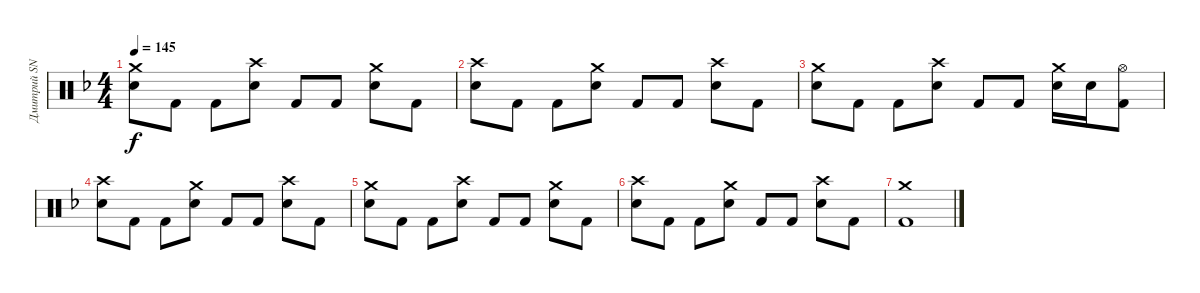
\track ("Дмитрий SNAKE Хакимов" "Дмитрий SN") {instrument percussion}
\staff {score}
\articulation defaults
\ts (4 4)
\tempo 145
\clef neutral
\ks f
("Crash medium (hit)" "Snare (hit) 2").8{dy f} "Kick (hit) 2".8 "Kick (hit) 2".8 ("Crash high (hit)" "Snare (hit) 2").8 "Kick (hit) 2".8 "Kick (hit) 2".8 ("Crash medium (hit)" "Snare (hit) 2").8 "Kick (hit) 2".8 |
("Crash high (hit)" "Snare (hit) 2").8 "Kick (hit) 2".8 "Kick (hit) 2".8 ("Crash medium (hit)" "Snare (hit) 2").8 "Kick (hit) 2".8 "Kick (hit) 2".8 ("Crash high (hit)" "Snare (hit) 2").8 "Kick (hit) 2".8 |
("Crash medium (hit)" "Snare (hit) 2").8 "Kick (hit) 2".8 "Kick (hit) 2".8 ("Crash high (hit)" "Snare (hit) 2").8 "Kick (hit) 2".8 "Kick (hit) 2".8 ("Crash medium (hit)" "Snare (hit) 2").16 "Snare (hit) 2".16 ("Hi-Hat (open)" "Kick (hit) 2").8 |
("Crash high (hit)" "Snare (hit) 2").8 "Kick (hit) 2".8 "Kick (hit) 2".8 ("Crash medium (hit)" "Snare (hit) 2").8 "Kick (hit) 2".8 "Kick (hit) 2".8 ("Crash high (hit)" "Snare (hit) 2").8 "Kick (hit) 2".8 |
("Crash medium (hit)" "Snare (hit) 2").8 "Kick (hit) 2".8 "Kick (hit) 2".8 ("Crash high (hit)" "Snare (hit) 2").8 "Kick (hit) 2".8 "Kick (hit) 2".8 ("Crash medium (hit)" "Snare (hit) 2").8 "Kick (hit) 2".8 |
("Crash high (hit)" "Snare (hit) 2").8 "Kick (hit) 2".8 "Kick (hit) 2".8 ("Crash medium (hit)" "Snare (hit) 2").8 "Kick (hit) 2".8 "Kick (hit) 2".8 ("Crash high (hit)" "Snare (hit) 2").8 "Kick (hit) 2".8 |
("Crash medium (hit)" "Kick (hit) 2").1
